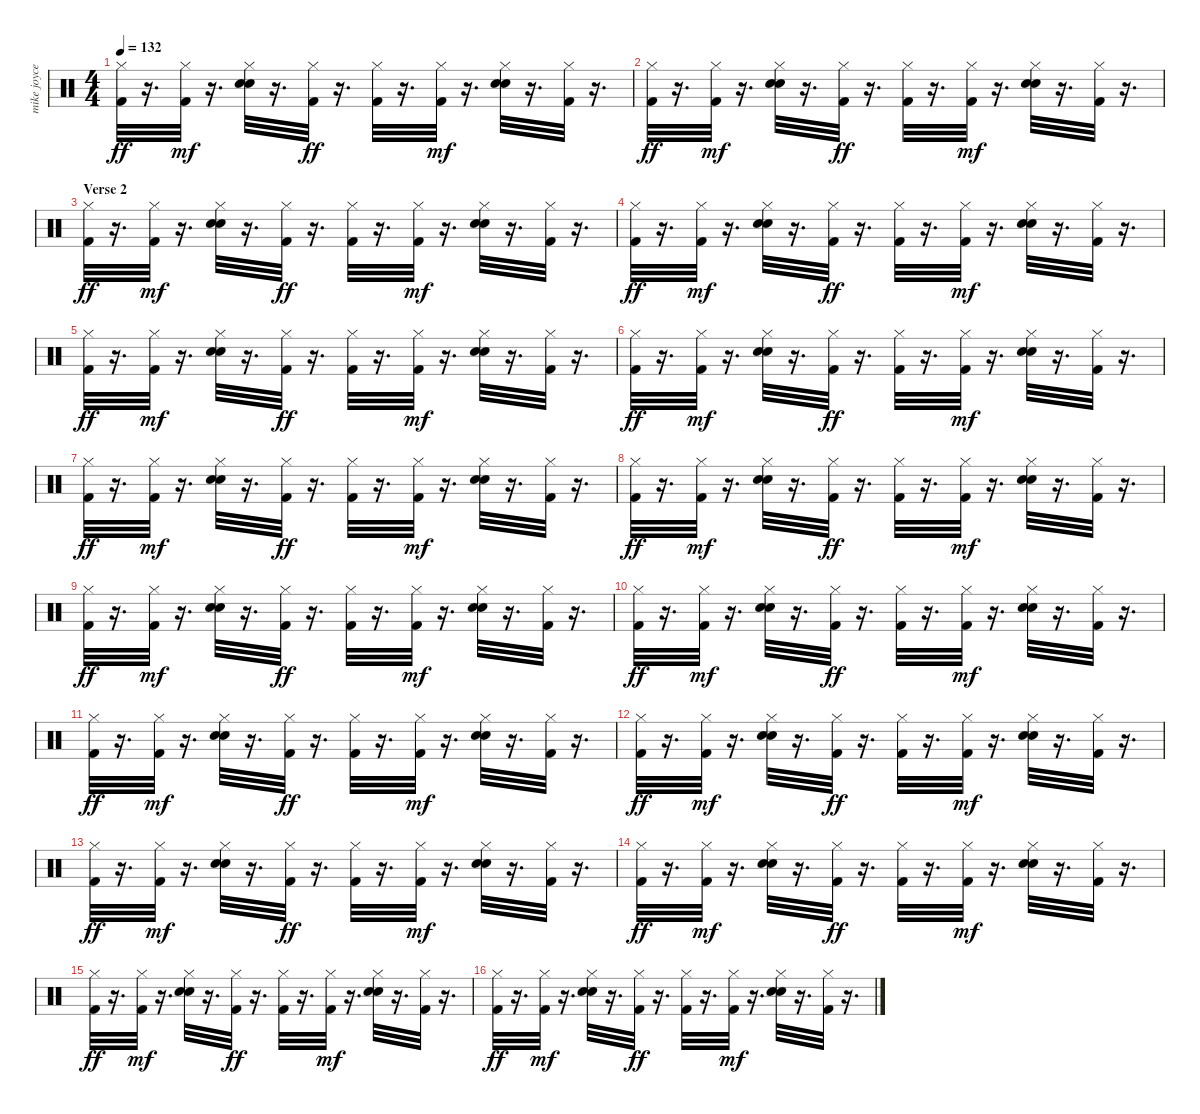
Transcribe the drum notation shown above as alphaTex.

\track ("mike joyce" "mike joyce") {instrument percussion}
\staff {score}
\articulation defaults
\ts (4 4)
\tempo 132
\clef neutral
\ks c
("Hi-Hat (closed)" "Kick (hit) 2").32{dy ff} r.16{d} ("Kick (hit) 2" "Hi-Hat (closed)").32{dy mf} r.16{d} ("Snare (hit) 2" "Electric Snare (hit)" "Hi-Hat (closed)").32 r.16{d} ("Hi-Hat (closed)" "Kick (hit) 2").32{dy ff} r.16{d} ("Hi-Hat (closed)" "Kick (hit) 2").32 r.16{d} ("Kick (hit) 2" "Hi-Hat (closed)").32{dy mf} r.16{d} ("Snare (hit) 2" "Electric Snare (hit)" "Hi-Hat (closed)").32 r.16{d} ("Kick (hit) 2" "Hi-Hat (closed)").32 r.16{d} |
("Hi-Hat (closed)" "Kick (hit) 2").32{dy ff} r.16{d} ("Kick (hit) 2" "Hi-Hat (closed)").32{dy mf} r.16{d} ("Snare (hit) 2" "Electric Snare (hit)" "Hi-Hat (closed)").32 r.16{d} ("Hi-Hat (closed)" "Kick (hit) 2").32{dy ff} r.16{d} ("Hi-Hat (closed)" "Kick (hit) 2").32 r.16{d} ("Kick (hit) 2" "Hi-Hat (closed)").32{dy mf} r.16{d} ("Snare (hit) 2" "Electric Snare (hit)" "Hi-Hat (closed)").32 r.16{d} ("Kick (hit) 2" "Hi-Hat (closed)").32 r.16{d} |
\section ("" "Verse 2")
("Hi-Hat (closed)" "Kick (hit) 2").32{dy ff} r.16{d} ("Kick (hit) 2" "Hi-Hat (closed)").32{dy mf} r.16{d} ("Snare (hit) 2" "Electric Snare (hit)" "Hi-Hat (closed)").32 r.16{d} ("Hi-Hat (closed)" "Kick (hit) 2").32{dy ff} r.16{d} ("Hi-Hat (closed)" "Kick (hit) 2").32 r.16{d} ("Kick (hit) 2" "Hi-Hat (closed)").32{dy mf} r.16{d} ("Snare (hit) 2" "Electric Snare (hit)" "Hi-Hat (closed)").32 r.16{d} ("Kick (hit) 2" "Hi-Hat (closed)").32 r.16{d} |
("Hi-Hat (closed)" "Kick (hit) 2").32{dy ff} r.16{d} ("Kick (hit) 2" "Hi-Hat (closed)").32{dy mf} r.16{d} ("Snare (hit) 2" "Electric Snare (hit)" "Hi-Hat (closed)").32 r.16{d} ("Hi-Hat (closed)" "Kick (hit) 2").32{dy ff} r.16{d} ("Hi-Hat (closed)" "Kick (hit) 2").32 r.16{d} ("Kick (hit) 2" "Hi-Hat (closed)").32{dy mf} r.16{d} ("Snare (hit) 2" "Electric Snare (hit)" "Hi-Hat (closed)").32 r.16{d} ("Kick (hit) 2" "Hi-Hat (closed)").32 r.16{d} |
("Hi-Hat (closed)" "Kick (hit) 2").32{dy ff} r.16{d} ("Kick (hit) 2" "Hi-Hat (closed)").32{dy mf} r.16{d} ("Snare (hit) 2" "Electric Snare (hit)" "Hi-Hat (closed)").32 r.16{d} ("Hi-Hat (closed)" "Kick (hit) 2").32{dy ff} r.16{d} ("Hi-Hat (closed)" "Kick (hit) 2").32 r.16{d} ("Kick (hit) 2" "Hi-Hat (closed)").32{dy mf} r.16{d} ("Snare (hit) 2" "Electric Snare (hit)" "Hi-Hat (closed)").32 r.16{d} ("Kick (hit) 2" "Hi-Hat (closed)").32 r.16{d} |
("Hi-Hat (closed)" "Kick (hit) 2").32{dy ff} r.16{d} ("Kick (hit) 2" "Hi-Hat (closed)").32{dy mf} r.16{d} ("Snare (hit) 2" "Electric Snare (hit)" "Hi-Hat (closed)").32 r.16{d} ("Hi-Hat (closed)" "Kick (hit) 2").32{dy ff} r.16{d} ("Hi-Hat (closed)" "Kick (hit) 2").32 r.16{d} ("Kick (hit) 2" "Hi-Hat (closed)").32{dy mf} r.16{d} ("Snare (hit) 2" "Electric Snare (hit)" "Hi-Hat (closed)").32 r.16{d} ("Kick (hit) 2" "Hi-Hat (closed)").32 r.16{d} |
("Hi-Hat (closed)" "Kick (hit) 2").32{dy ff} r.16{d} ("Kick (hit) 2" "Hi-Hat (closed)").32{dy mf} r.16{d} ("Snare (hit) 2" "Electric Snare (hit)" "Hi-Hat (closed)").32 r.16{d} ("Hi-Hat (closed)" "Kick (hit) 2").32{dy ff} r.16{d} ("Hi-Hat (closed)" "Kick (hit) 2").32 r.16{d} ("Kick (hit) 2" "Hi-Hat (closed)").32{dy mf} r.16{d} ("Snare (hit) 2" "Electric Snare (hit)" "Hi-Hat (closed)").32 r.16{d} ("Kick (hit) 2" "Hi-Hat (closed)").32 r.16{d} |
("Hi-Hat (closed)" "Kick (hit) 2").32{dy ff} r.16{d} ("Kick (hit) 2" "Hi-Hat (closed)").32{dy mf} r.16{d} ("Snare (hit) 2" "Electric Snare (hit)" "Hi-Hat (closed)").32 r.16{d} ("Hi-Hat (closed)" "Kick (hit) 2").32{dy ff} r.16{d} ("Hi-Hat (closed)" "Kick (hit) 2").32 r.16{d} ("Kick (hit) 2" "Hi-Hat (closed)").32{dy mf} r.16{d} ("Snare (hit) 2" "Electric Snare (hit)" "Hi-Hat (closed)").32 r.16{d} ("Kick (hit) 2" "Hi-Hat (closed)").32 r.16{d} |
("Hi-Hat (closed)" "Kick (hit) 2").32{dy ff} r.16{d} ("Kick (hit) 2" "Hi-Hat (closed)").32{dy mf} r.16{d} ("Snare (hit) 2" "Electric Snare (hit)" "Hi-Hat (closed)").32 r.16{d} ("Hi-Hat (closed)" "Kick (hit) 2").32{dy ff} r.16{d} ("Hi-Hat (closed)" "Kick (hit) 2").32 r.16{d} ("Kick (hit) 2" "Hi-Hat (closed)").32{dy mf} r.16{d} ("Snare (hit) 2" "Electric Snare (hit)" "Hi-Hat (closed)").32 r.16{d} ("Kick (hit) 2" "Hi-Hat (closed)").32 r.16{d} |
("Hi-Hat (closed)" "Kick (hit) 2").32{dy ff} r.16{d} ("Kick (hit) 2" "Hi-Hat (closed)").32{dy mf} r.16{d} ("Snare (hit) 2" "Electric Snare (hit)" "Hi-Hat (closed)").32 r.16{d} ("Hi-Hat (closed)" "Kick (hit) 2").32{dy ff} r.16{d} ("Hi-Hat (closed)" "Kick (hit) 2").32 r.16{d} ("Kick (hit) 2" "Hi-Hat (closed)").32{dy mf} r.16{d} ("Snare (hit) 2" "Electric Snare (hit)" "Hi-Hat (closed)").32 r.16{d} ("Kick (hit) 2" "Hi-Hat (closed)").32 r.16{d} |
("Hi-Hat (closed)" "Kick (hit) 2").32{dy ff} r.16{d} ("Kick (hit) 2" "Hi-Hat (closed)").32{dy mf} r.16{d} ("Snare (hit) 2" "Electric Snare (hit)" "Hi-Hat (closed)").32 r.16{d} ("Hi-Hat (closed)" "Kick (hit) 2").32{dy ff} r.16{d} ("Hi-Hat (closed)" "Kick (hit) 2").32 r.16{d} ("Kick (hit) 2" "Hi-Hat (closed)").32{dy mf} r.16{d} ("Snare (hit) 2" "Electric Snare (hit)" "Hi-Hat (closed)").32 r.16{d} ("Kick (hit) 2" "Hi-Hat (closed)").32 r.16{d} |
("Hi-Hat (closed)" "Kick (hit) 2").32{dy ff} r.16{d} ("Kick (hit) 2" "Hi-Hat (closed)").32{dy mf} r.16{d} ("Snare (hit) 2" "Electric Snare (hit)" "Hi-Hat (closed)").32 r.16{d} ("Hi-Hat (closed)" "Kick (hit) 2").32{dy ff} r.16{d} ("Hi-Hat (closed)" "Kick (hit) 2").32 r.16{d} ("Kick (hit) 2" "Hi-Hat (closed)").32{dy mf} r.16{d} ("Snare (hit) 2" "Electric Snare (hit)" "Hi-Hat (closed)").32 r.16{d} ("Kick (hit) 2" "Hi-Hat (closed)").32 r.16{d} |
("Hi-Hat (closed)" "Kick (hit) 2").32{dy ff} r.16{d} ("Kick (hit) 2" "Hi-Hat (closed)").32{dy mf} r.16{d} ("Snare (hit) 2" "Electric Snare (hit)" "Hi-Hat (closed)").32 r.16{d} ("Hi-Hat (closed)" "Kick (hit) 2").32{dy ff} r.16{d} ("Hi-Hat (closed)" "Kick (hit) 2").32 r.16{d} ("Kick (hit) 2" "Hi-Hat (closed)").32{dy mf} r.16{d} ("Snare (hit) 2" "Electric Snare (hit)" "Hi-Hat (closed)").32 r.16{d} ("Kick (hit) 2" "Hi-Hat (closed)").32 r.16{d} |
("Hi-Hat (closed)" "Kick (hit) 2").32{dy ff} r.16{d} ("Kick (hit) 2" "Hi-Hat (closed)").32{dy mf} r.16{d} ("Snare (hit) 2" "Electric Snare (hit)" "Hi-Hat (closed)").32 r.16{d} ("Hi-Hat (closed)" "Kick (hit) 2").32{dy ff} r.16{d} ("Hi-Hat (closed)" "Kick (hit) 2").32 r.16{d} ("Kick (hit) 2" "Hi-Hat (closed)").32{dy mf} r.16{d} ("Snare (hit) 2" "Electric Snare (hit)" "Hi-Hat (closed)").32 r.16{d} ("Kick (hit) 2" "Hi-Hat (closed)").32 r.16{d} |
("Hi-Hat (closed)" "Kick (hit) 2").32{dy ff} r.16{d} ("Kick (hit) 2" "Hi-Hat (closed)").32{dy mf} r.16{d} ("Snare (hit) 2" "Electric Snare (hit)" "Hi-Hat (closed)").32 r.16{d} ("Hi-Hat (closed)" "Kick (hit) 2").32{dy ff} r.16{d} ("Hi-Hat (closed)" "Kick (hit) 2").32 r.16{d} ("Kick (hit) 2" "Hi-Hat (closed)").32{dy mf} r.16{d} ("Snare (hit) 2" "Electric Snare (hit)" "Hi-Hat (closed)").32 r.16{d} ("Kick (hit) 2" "Hi-Hat (closed)").32 r.16{d} |
("Hi-Hat (closed)" "Kick (hit) 2").32{dy ff} r.16{d} ("Kick (hit) 2" "Hi-Hat (closed)").32{dy mf} r.16{d} ("Snare (hit) 2" "Electric Snare (hit)" "Hi-Hat (closed)").32 r.16{d} ("Hi-Hat (closed)" "Kick (hit) 2").32{dy ff} r.16{d} ("Hi-Hat (closed)" "Kick (hit) 2").32 r.16{d} ("Kick (hit) 2" "Hi-Hat (closed)").32{dy mf} r.16{d} ("Snare (hit) 2" "Electric Snare (hit)" "Hi-Hat (closed)").32 r.16{d} ("Kick (hit) 2" "Hi-Hat (closed)").32 r.16{d}
